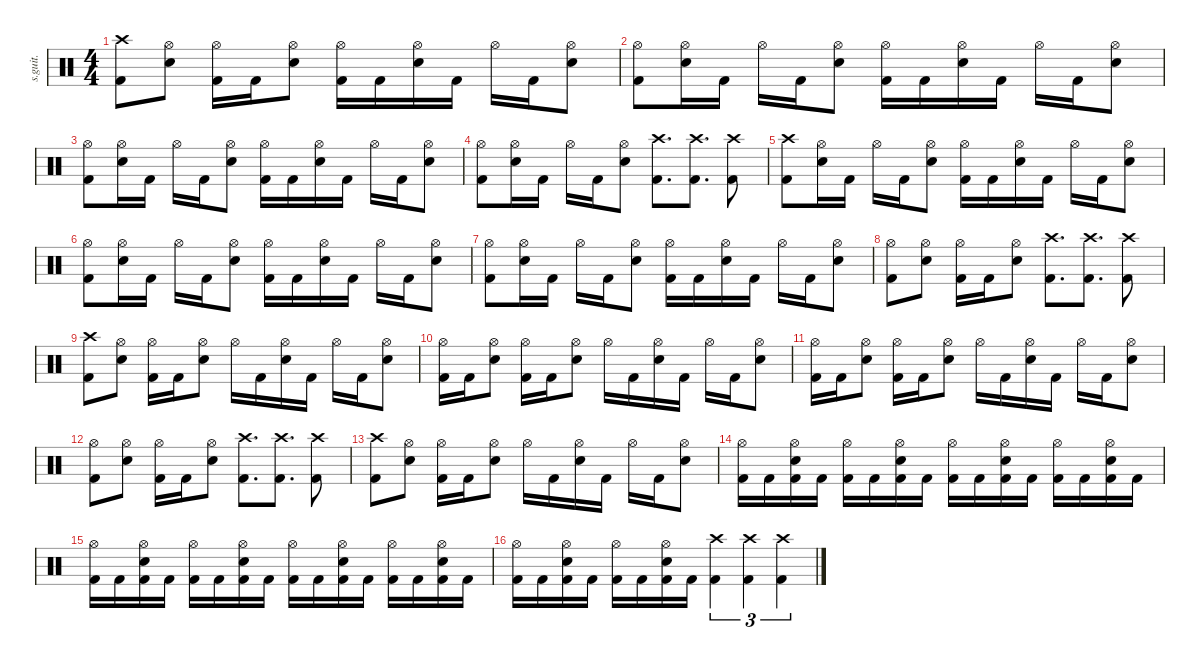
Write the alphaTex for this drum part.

\defaultSystemsLayout 4
\hideDynamics
\bracketExtendMode nobrackets
\track ("" "s.guit.") {instrument percussion}
\staff {score}
\articulation defaults
\ts (4 4)
\tempo (153 hide)
\clef neutral
\ks c
("Crash high (hit)" "Kick (hit) 2").8{dy f} ("Hi-Hat (open)" "Snare (hit) 2").8 ("Hi-Hat (open)" "Kick (hit) 2").16 "Kick (hit) 2".16 ("Hi-Hat (open)" "Snare (hit) 2").8 ("Hi-Hat (open)" "Kick (hit) 2").16 "Kick (hit) 2".16 ("Hi-Hat (open)" "Snare (hit) 2").16 "Kick (hit) 2".16 "Hi-Hat (open)".16 "Kick (hit) 2".16 ("Hi-Hat (open)" "Snare (hit) 2").8 |
("Hi-Hat (open)" "Kick (hit) 2").8 ("Hi-Hat (open)" "Snare (hit) 2").16 "Kick (hit) 2".16 "Hi-Hat (open)".16 "Kick (hit) 2".16 ("Hi-Hat (open)" "Snare (hit) 2").8 ("Hi-Hat (open)" "Kick (hit) 2").16 "Kick (hit) 2".16 ("Hi-Hat (open)" "Snare (hit) 2").16 "Kick (hit) 2".16 "Hi-Hat (open)".16 "Kick (hit) 2".16 ("Hi-Hat (open)" "Snare (hit) 2").8 |
("Hi-Hat (open)" "Kick (hit) 2").8 ("Hi-Hat (open)" "Snare (hit) 2").16 "Kick (hit) 2".16 "Hi-Hat (open)".16 "Kick (hit) 2".16 ("Hi-Hat (open)" "Snare (hit) 2").8 ("Hi-Hat (open)" "Kick (hit) 2").16 "Kick (hit) 2".16 ("Hi-Hat (open)" "Snare (hit) 2").16 "Kick (hit) 2".16 "Hi-Hat (open)".16 "Kick (hit) 2".16 ("Hi-Hat (open)" "Snare (hit) 2").8 |
("Hi-Hat (open)" "Kick (hit) 2").8 ("Hi-Hat (open)" "Snare (hit) 2").16 "Kick (hit) 2".16 "Hi-Hat (open)".16 "Kick (hit) 2".16 ("Hi-Hat (open)" "Snare (hit) 2").8 ("Crash high (hit)" "Kick (hit) 2").8{d} ("Crash high (hit)" "Kick (hit) 2").8{d} ("Crash high (hit)" "Kick (hit) 2").8 |
("Crash high (hit)" "Kick (hit) 2").8 ("Hi-Hat (open)" "Snare (hit) 2").16 "Kick (hit) 2".16 "Hi-Hat (open)".16 "Kick (hit) 2".16 ("Hi-Hat (open)" "Snare (hit) 2").8 ("Hi-Hat (open)" "Kick (hit) 2").16 "Kick (hit) 2".16 ("Hi-Hat (open)" "Snare (hit) 2").16 "Kick (hit) 2".16 "Hi-Hat (open)".16 "Kick (hit) 2".16 ("Hi-Hat (open)" "Snare (hit) 2").8 |
("Hi-Hat (open)" "Kick (hit) 2").8 ("Hi-Hat (open)" "Snare (hit) 2").16 "Kick (hit) 2".16 "Hi-Hat (open)".16 "Kick (hit) 2".16 ("Hi-Hat (open)" "Snare (hit) 2").8 ("Hi-Hat (open)" "Kick (hit) 2").16 "Kick (hit) 2".16 ("Hi-Hat (open)" "Snare (hit) 2").16 "Kick (hit) 2".16 "Hi-Hat (open)".16 "Kick (hit) 2".16 ("Hi-Hat (open)" "Snare (hit) 2").8 |
("Hi-Hat (open)" "Kick (hit) 2").8 ("Hi-Hat (open)" "Snare (hit) 2").16 "Kick (hit) 2".16 "Hi-Hat (open)".16 "Kick (hit) 2".16 ("Hi-Hat (open)" "Snare (hit) 2").8 ("Hi-Hat (open)" "Kick (hit) 2").16 "Kick (hit) 2".16 ("Hi-Hat (open)" "Snare (hit) 2").16 "Kick (hit) 2".16 "Hi-Hat (open)".16 "Kick (hit) 2".16 ("Hi-Hat (open)" "Snare (hit) 2").8 |
("Hi-Hat (open)" "Kick (hit) 2").8 ("Hi-Hat (open)" "Snare (hit) 2").8 ("Hi-Hat (open)" "Kick (hit) 2").16 "Kick (hit) 2".16 ("Hi-Hat (open)" "Snare (hit) 2").8 ("Crash high (hit)" "Kick (hit) 2").8{d} ("Crash high (hit)" "Kick (hit) 2").8{d} ("Crash high (hit)" "Kick (hit) 2").8 |
("Crash high (hit)" "Kick (hit) 2").8 ("Hi-Hat (open)" "Snare (hit) 2").8 ("Hi-Hat (open)" "Kick (hit) 2").16 "Kick (hit) 2".16 ("Hi-Hat (open)" "Snare (hit) 2").8 "Hi-Hat (open)".16 "Kick (hit) 2".16 ("Hi-Hat (open)" "Snare (hit) 2").16 "Kick (hit) 2".16 "Hi-Hat (open)".16 "Kick (hit) 2".16 ("Hi-Hat (open)" "Snare (hit) 2").8 |
("Hi-Hat (open)" "Kick (hit) 2").16 "Kick (hit) 2".16 ("Hi-Hat (open)" "Snare (hit) 2").8 ("Hi-Hat (open)" "Kick (hit) 2").16 "Kick (hit) 2".16 ("Hi-Hat (open)" "Snare (hit) 2").8 "Hi-Hat (open)".16 "Kick (hit) 2".16 ("Hi-Hat (open)" "Snare (hit) 2").16 "Kick (hit) 2".16 "Hi-Hat (open)".16 "Kick (hit) 2".16 ("Hi-Hat (open)" "Snare (hit) 2").8 |
("Hi-Hat (open)" "Kick (hit) 2").16 "Kick (hit) 2".16 ("Hi-Hat (open)" "Snare (hit) 2").8 ("Hi-Hat (open)" "Kick (hit) 2").16 "Kick (hit) 2".16 ("Hi-Hat (open)" "Snare (hit) 2").8 "Hi-Hat (open)".16 "Kick (hit) 2".16 ("Hi-Hat (open)" "Snare (hit) 2").16 "Kick (hit) 2".16 "Hi-Hat (open)".16 "Kick (hit) 2".16 ("Hi-Hat (open)" "Snare (hit) 2").8 |
("Hi-Hat (open)" "Kick (hit) 2").8 ("Hi-Hat (open)" "Snare (hit) 2").8 ("Hi-Hat (open)" "Kick (hit) 2").16 "Kick (hit) 2".16 ("Hi-Hat (open)" "Snare (hit) 2").8 ("Crash high (hit)" "Kick (hit) 2").8{d} ("Crash high (hit)" "Kick (hit) 2").8{d} ("Crash high (hit)" "Kick (hit) 2").8 |
("Crash high (hit)" "Kick (hit) 2").8 ("Hi-Hat (open)" "Snare (hit) 2").8 ("Hi-Hat (open)" "Kick (hit) 2").16 "Kick (hit) 2".16 ("Hi-Hat (open)" "Snare (hit) 2").8 "Hi-Hat (open)".16 "Kick (hit) 2".16 ("Hi-Hat (open)" "Snare (hit) 2").16 "Kick (hit) 2".16 "Hi-Hat (open)".16 "Kick (hit) 2".16 ("Hi-Hat (open)" "Snare (hit) 2").8 |
("Hi-Hat (open)" "Kick (hit) 2").16 "Kick (hit) 2".16 ("Hi-Hat (open)" "Snare (hit) 2" "Kick (hit) 2").16 "Kick (hit) 2".16 ("Hi-Hat (open)" "Kick (hit) 2").16 "Kick (hit) 2".16 ("Hi-Hat (open)" "Snare (hit) 2" "Kick (hit) 2").16 "Kick (hit) 2".16 ("Hi-Hat (open)" "Kick (hit) 2").16 "Kick (hit) 2".16 ("Hi-Hat (open)" "Snare (hit) 2" "Kick (hit) 2").16 "Kick (hit) 2".16 ("Hi-Hat (open)" "Kick (hit) 2").16 "Kick (hit) 2".16 ("Hi-Hat (open)" "Snare (hit) 2" "Kick (hit) 2").16 "Kick (hit) 2".16 |
("Hi-Hat (open)" "Kick (hit) 2").16 "Kick (hit) 2".16 ("Hi-Hat (open)" "Snare (hit) 2" "Kick (hit) 2").16 "Kick (hit) 2".16 ("Hi-Hat (open)" "Kick (hit) 2").16 "Kick (hit) 2".16 ("Hi-Hat (open)" "Snare (hit) 2" "Kick (hit) 2").16 "Kick (hit) 2".16 ("Hi-Hat (open)" "Kick (hit) 2").16 "Kick (hit) 2".16 ("Hi-Hat (open)" "Snare (hit) 2" "Kick (hit) 2").16 "Kick (hit) 2".16 ("Hi-Hat (open)" "Kick (hit) 2").16 "Kick (hit) 2".16 ("Hi-Hat (open)" "Snare (hit) 2" "Kick (hit) 2").16 "Kick (hit) 2".16 |
("Hi-Hat (open)" "Kick (hit) 2").16 "Kick (hit) 2".16 ("Hi-Hat (open)" "Snare (hit) 2" "Kick (hit) 2").16 "Kick (hit) 2".16 ("Hi-Hat (open)" "Kick (hit) 2").16 "Kick (hit) 2".16 ("Hi-Hat (open)" "Snare (hit) 2" "Kick (hit) 2").16 "Kick (hit) 2".16 ("Crash high (hit)" "Kick (hit) 2").4{tu (3 2)} ("Crash high (hit)" "Kick (hit) 2").4{tu (3 2)} ("Crash high (hit)" "Kick (hit) 2").4{tu (3 2)}
